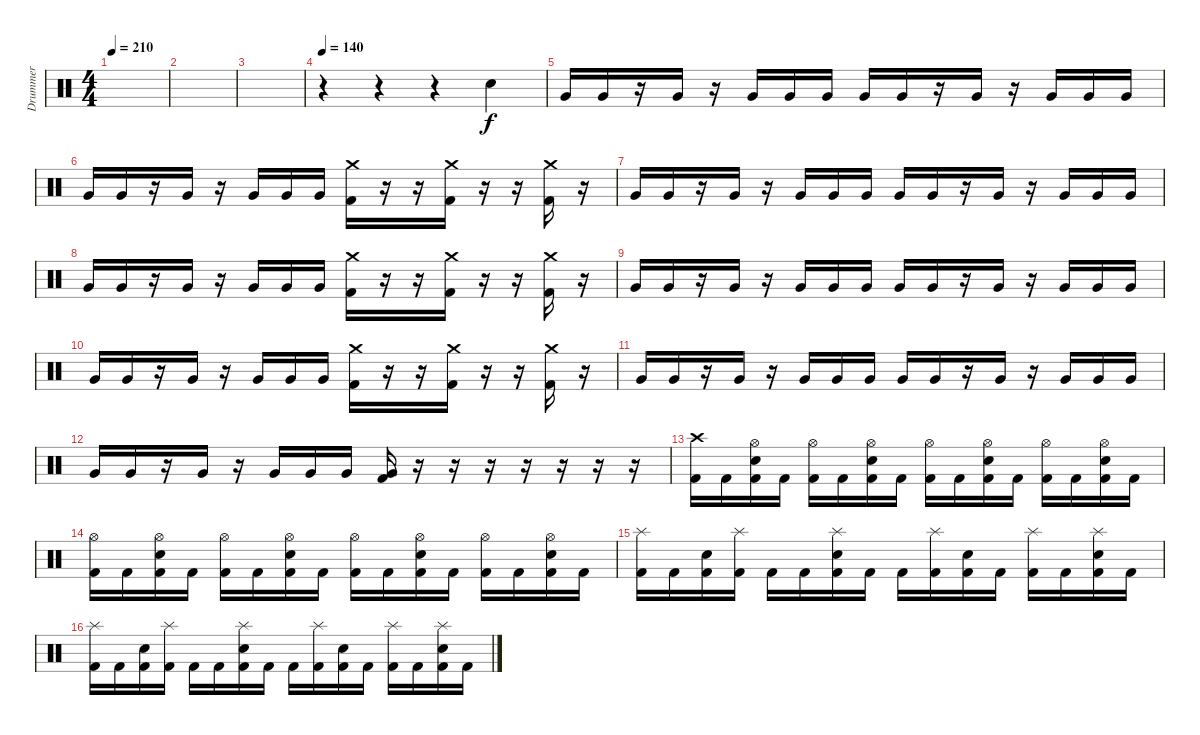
\track ("Drummer" "Drummer") {instrument percussion}
\staff {score}
\articulation defaults
\ts (4 4)
\tempo 210
\clef neutral
\ks c
|
|
|
\tempo 140
r.4 r.4 r.4 "Electric Snare (hit)".4 |
"Very Low Tom (hit)".16 "Very Low Tom (hit)".16 r.16 "Very Low Tom (hit)".16 r.16 "Very Low Tom (hit)".16 "Very Low Tom (hit)".16 "Very Low Tom (hit)".16 "Very Low Tom (hit)".16 "Very Low Tom (hit)".16 r.16 "Very Low Tom (hit)".16 r.16 "Very Low Tom (hit)".16 "Very Low Tom (hit)".16 "Very Low Tom (hit)".16 |
"Very Low Tom (hit)".16 "Very Low Tom (hit)".16 r.16 "Very Low Tom (hit)".16 r.16 "Very Low Tom (hit)".16 "Very Low Tom (hit)".16 "Very Low Tom (hit)".16 ("Crash medium (hit)" "Kick (hit) 2").16 r.16 r.16 ("Crash medium (hit)" "Kick (hit) 2").16 r.16 r.16 ("Crash medium (hit)" "Kick (hit) 2").16 r.16 |
"Very Low Tom (hit)".16 "Very Low Tom (hit)".16 r.16 "Very Low Tom (hit)".16 r.16 "Very Low Tom (hit)".16 "Very Low Tom (hit)".16 "Very Low Tom (hit)".16 "Very Low Tom (hit)".16 "Very Low Tom (hit)".16 r.16 "Very Low Tom (hit)".16 r.16 "Very Low Tom (hit)".16 "Very Low Tom (hit)".16 "Very Low Tom (hit)".16 |
"Very Low Tom (hit)".16 "Very Low Tom (hit)".16 r.16 "Very Low Tom (hit)".16 r.16 "Very Low Tom (hit)".16 "Very Low Tom (hit)".16 "Very Low Tom (hit)".16 ("Crash medium (hit)" "Kick (hit) 2").16 r.16 r.16 ("Crash medium (hit)" "Kick (hit) 2").16 r.16 r.16 ("Crash medium (hit)" "Kick (hit) 2").16 r.16 |
"Very Low Tom (hit)".16 "Very Low Tom (hit)".16 r.16 "Very Low Tom (hit)".16 r.16 "Very Low Tom (hit)".16 "Very Low Tom (hit)".16 "Very Low Tom (hit)".16 "Very Low Tom (hit)".16 "Very Low Tom (hit)".16 r.16 "Very Low Tom (hit)".16 r.16 "Very Low Tom (hit)".16 "Very Low Tom (hit)".16 "Very Low Tom (hit)".16 |
"Very Low Tom (hit)".16 "Very Low Tom (hit)".16 r.16 "Very Low Tom (hit)".16 r.16 "Very Low Tom (hit)".16 "Very Low Tom (hit)".16 "Very Low Tom (hit)".16 ("Crash medium (hit)" "Kick (hit) 2").16 r.16 r.16 ("Crash medium (hit)" "Kick (hit) 2").16 r.16 r.16 ("Crash medium (hit)" "Kick (hit) 2").16 r.16 |
"Very Low Tom (hit)".16 "Very Low Tom (hit)".16 r.16 "Very Low Tom (hit)".16 r.16 "Very Low Tom (hit)".16 "Very Low Tom (hit)".16 "Very Low Tom (hit)".16 "Very Low Tom (hit)".16 "Very Low Tom (hit)".16 r.16 "Very Low Tom (hit)".16 r.16 "Very Low Tom (hit)".16 "Very Low Tom (hit)".16 "Very Low Tom (hit)".16 |
"Very Low Tom (hit)".16 "Very Low Tom (hit)".16 r.16 "Very Low Tom (hit)".16 r.16 "Very Low Tom (hit)".16 "Very Low Tom (hit)".16 "Very Low Tom (hit)".16 ("Very Low Tom (hit)" "Kick (hit) 2").16 r.16 r.16 r.16 r.16 r.16 r.16 r.16 |
("Crash high (hit)" "Kick (hit) 2").16 "Kick (hit) 2".16 ("Hi-Hat (open)" "Electric Snare (hit)" "Kick (hit) 2").16 "Kick (hit) 2".16 ("Hi-Hat (open)" "Kick (hit) 2").16 "Kick (hit) 2".16 ("Hi-Hat (open)" "Electric Snare (hit)" "Kick (hit) 2").16 "Kick (hit) 2".16 ("Hi-Hat (open)" "Kick (hit) 2").16 "Kick (hit) 2".16 ("Hi-Hat (open)" "Electric Snare (hit)" "Kick (hit) 2").16 "Kick (hit) 2".16 ("Hi-Hat (open)" "Kick (hit) 2").16 "Kick (hit) 2".16 ("Hi-Hat (open)" "Electric Snare (hit)" "Kick (hit) 2").16 "Kick (hit) 2".16 |
("Hi-Hat (open)" "Kick (hit) 2").16 "Kick (hit) 2".16 ("Hi-Hat (open)" "Electric Snare (hit)" "Kick (hit) 2").16 "Kick (hit) 2".16 ("Hi-Hat (open)" "Kick (hit) 2").16 "Kick (hit) 2".16 ("Hi-Hat (open)" "Electric Snare (hit)" "Kick (hit) 2").16 "Kick (hit) 2".16 ("Hi-Hat (open)" "Kick (hit) 2").16 "Kick (hit) 2".16 ("Hi-Hat (open)" "Electric Snare (hit)" "Kick (hit) 2").16 "Kick (hit) 2".16 ("Hi-Hat (open)" "Kick (hit) 2").16 "Kick (hit) 2".16 ("Hi-Hat (open)" "Electric Snare (hit)" "Kick (hit) 2").16 "Kick (hit) 2".16 |
("Splash (hit)" "Kick (hit) 2").16 "Kick (hit) 2".16 ("Electric Snare (hit)" "Kick (hit) 2").16 ("Splash (hit)" "Kick (hit) 2").16 "Kick (hit) 2".16 "Kick (hit) 2".16 ("Splash (hit)" "Electric Snare (hit)" "Kick (hit) 2").16 "Kick (hit) 2".16 "Kick (hit) 2".16 ("Splash (hit)" "Kick (hit) 2").16 ("Electric Snare (hit)" "Kick (hit) 2").16 "Kick (hit) 2".16 ("Splash (hit)" "Kick (hit) 2").16 "Kick (hit) 2".16 ("Splash (hit)" "Electric Snare (hit)" "Kick (hit) 2").16 "Kick (hit) 2".16 |
("Splash (hit)" "Kick (hit) 2").16 "Kick (hit) 2".16 ("Electric Snare (hit)" "Kick (hit) 2").16 ("Splash (hit)" "Kick (hit) 2").16 "Kick (hit) 2".16 "Kick (hit) 2".16 ("Splash (hit)" "Electric Snare (hit)" "Kick (hit) 2").16 "Kick (hit) 2".16 "Kick (hit) 2".16 ("Splash (hit)" "Kick (hit) 2").16 ("Electric Snare (hit)" "Kick (hit) 2").16 "Kick (hit) 2".16 ("Splash (hit)" "Kick (hit) 2").16 "Kick (hit) 2".16 ("Splash (hit)" "Electric Snare (hit)" "Kick (hit) 2").16 "Kick (hit) 2".16
